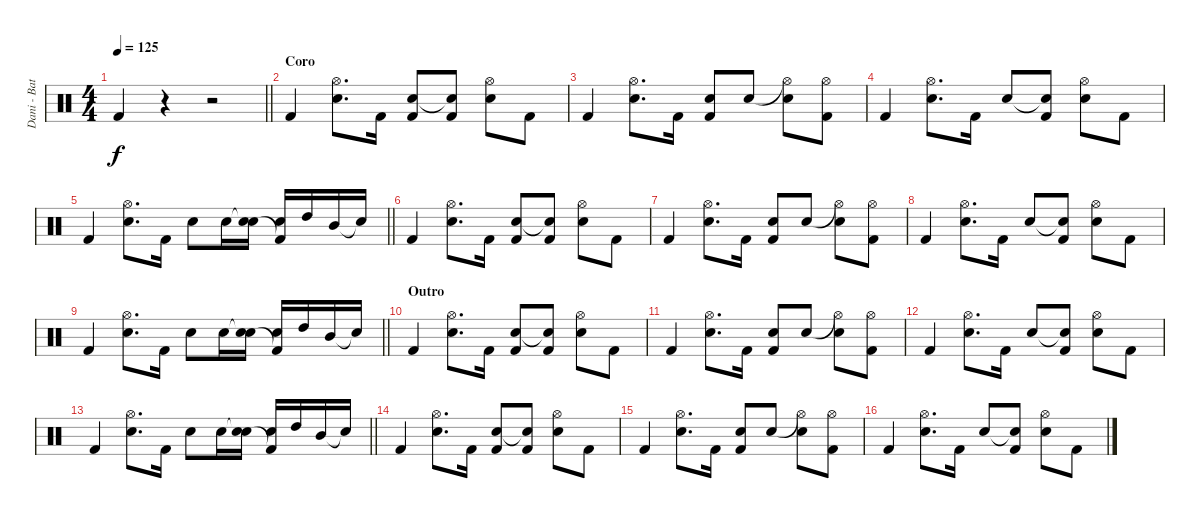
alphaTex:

\track ("Dani - Batería" "Dani - Bat") {instrument percussion}
\staff {score}
\articulation defaults
\ts (4 4)
\tempo 125
\clef neutral
\barLineRight lightlight
\ks c "Kick (hit) 2".4{dy f}
r.4 r.2 |
\section ("" "Coro")
"Kick (hit) 2".4 ("Hi-Hat (open)" "Electric Snare (hit)").8{d} "Kick (hit) 2".16 ("Electric Snare (hit)" "Kick (hit) 2").8 ("Snare (hit)"{t} "Kick (hit) 2").8 ("Hi-Hat (open)" "Electric Snare (hit)").8 "Kick (hit) 2".8 |
"Kick (hit) 2".4 ("Hi-Hat (open)" "Electric Snare (hit)").8{d} "Kick (hit) 2".16 ("Electric Snare (hit)" "Kick (hit) 2").8 "Electric Snare (hit)".8 ("Hi-Hat (open)"{t} "Electric Snare (hit)").8 ("Hi-Hat (open)" "Kick (hit) 2").8 |
"Kick (hit) 2".4 ("Hi-Hat (open)" "Electric Snare (hit)").8{d} "Kick (hit) 2".16 "Electric Snare (hit)".8 ("Snare (hit)"{t} "Kick (hit) 2").8 ("Hi-Hat (open)" "Electric Snare (hit)").8 "Kick (hit) 2".8 |
\barLineRight lightlight "Kick (hit) 2".4
("Hi-Hat (open)" "Electric Snare (hit)").8{d} "Kick (hit) 2".16 "Electric Snare (hit)".8 "Electric Snare (hit)".16 ("Snare (hit)"{t} "Electric Snare (hit)").16 ("Electric Snare (hit)" "Kick (hit) 2"{t}).16 "High Tom (hit)".16 "Mid Tom (hit)".16 "Snare (hit)"{t}.16 |
"Kick (hit) 2".4 ("Hi-Hat (open)" "Electric Snare (hit)").8{d} "Kick (hit) 2".16 ("Electric Snare (hit)" "Kick (hit) 2").8 ("Snare (hit)"{t} "Kick (hit) 2").8 ("Hi-Hat (open)" "Electric Snare (hit)").8 "Kick (hit) 2".8 |
"Kick (hit) 2".4 ("Hi-Hat (open)" "Electric Snare (hit)").8{d} "Kick (hit) 2".16 ("Electric Snare (hit)" "Kick (hit) 2").8 "Electric Snare (hit)".8 ("Hi-Hat (open)"{t} "Electric Snare (hit)").8 ("Hi-Hat (open)" "Kick (hit) 2").8 |
"Kick (hit) 2".4 ("Hi-Hat (open)" "Electric Snare (hit)").8{d} "Kick (hit) 2".16 "Electric Snare (hit)".8 ("Snare (hit)"{t} "Kick (hit) 2").8 ("Hi-Hat (open)" "Electric Snare (hit)").8 "Kick (hit) 2".8 |
\barLineRight lightlight "Kick (hit) 2".4
("Hi-Hat (open)" "Electric Snare (hit)").8{d} "Kick (hit) 2".16 "Electric Snare (hit)".8 "Electric Snare (hit)".16 ("Snare (hit)"{t} "Electric Snare (hit)").16 ("Electric Snare (hit)" "Kick (hit) 2"{t}).16 "High Tom (hit)".16 "Mid Tom (hit)".16 "Snare (hit)"{t}.16 |
\section ("" "Outro")
"Kick (hit) 2".4 ("Hi-Hat (open)" "Electric Snare (hit)").8{d} "Kick (hit) 2".16 ("Electric Snare (hit)" "Kick (hit) 2").8 ("Snare (hit)"{t} "Kick (hit) 2").8 ("Hi-Hat (open)" "Electric Snare (hit)").8 "Kick (hit) 2".8 |
"Kick (hit) 2".4 ("Hi-Hat (open)" "Electric Snare (hit)").8{d} "Kick (hit) 2".16 ("Electric Snare (hit)" "Kick (hit) 2").8 "Electric Snare (hit)".8 ("Hi-Hat (open)"{t} "Electric Snare (hit)").8 ("Hi-Hat (open)" "Kick (hit) 2").8 |
"Kick (hit) 2".4 ("Hi-Hat (open)" "Electric Snare (hit)").8{d} "Kick (hit) 2".16 "Electric Snare (hit)".8 ("Snare (hit)"{t} "Kick (hit) 2").8 ("Hi-Hat (open)" "Electric Snare (hit)").8 "Kick (hit) 2".8 |
\barLineRight lightlight "Kick (hit) 2".4
("Hi-Hat (open)" "Electric Snare (hit)").8{d} "Kick (hit) 2".16 "Electric Snare (hit)".8 "Electric Snare (hit)".16 ("Snare (hit)"{t} "Electric Snare (hit)").16 ("Electric Snare (hit)" "Kick (hit) 2"{t}).16 "High Tom (hit)".16 "Mid Tom (hit)".16 "Snare (hit)"{t}.16 |
"Kick (hit) 2".4 ("Hi-Hat (open)" "Electric Snare (hit)").8{d} "Kick (hit) 2".16 ("Electric Snare (hit)" "Kick (hit) 2").8 ("Snare (hit)"{t} "Kick (hit) 2").8 ("Hi-Hat (open)" "Electric Snare (hit)").8 "Kick (hit) 2".8 |
"Kick (hit) 2".4 ("Hi-Hat (open)" "Electric Snare (hit)").8{d} "Kick (hit) 2".16 ("Electric Snare (hit)" "Kick (hit) 2").8 "Electric Snare (hit)".8 ("Hi-Hat (open)"{t} "Electric Snare (hit)").8 ("Hi-Hat (open)" "Kick (hit) 2").8 |
"Kick (hit) 2".4 ("Hi-Hat (open)" "Electric Snare (hit)").8{d} "Kick (hit) 2".16 "Electric Snare (hit)".8 ("Snare (hit)"{t} "Kick (hit) 2").8 ("Hi-Hat (open)" "Electric Snare (hit)").8 "Kick (hit) 2".8
